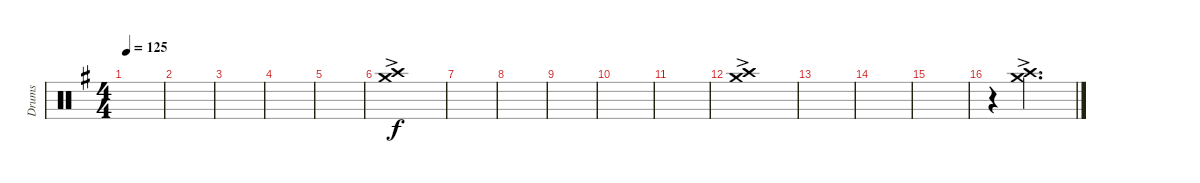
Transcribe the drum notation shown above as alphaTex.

\defaultSystemsLayout 4
\bracketExtendMode groupsimilarinstruments
\otherSystemsTrackNameOrientation horizontal
\track ("Drumkit" "Drums") {instrument percussion}
\staff {score}
\articulation defaults
\ts (4 4)
\tempo 125
\clef neutral
\scale
0.333333
\ks g
|
\scale
0.333333 |
\scale
0.333333 |
\scale
0.333333 |
\scale
0.333333 |
\scale
0.333333 ("Crash high (hit)"{ac acc forcenatural} "Crash medium (hit)"{ac acc forcenatural}).1{beam Down} |
\scale
0.333333 |
\scale
0.333333 |
\scale
0.333333 |
\scale
0.333333 |
\scale
0.333333 |
\scale
0.333333 ("Crash high (hit)"{ac acc forcenatural} "Crash medium (hit)"{ac acc forcenatural}).1{beam Down} |
\scale
0.333333 |
\scale
0.333333 |
\scale
0.333333 |
\scale
0.333333 r.4{beam Down} ("Crash high (hit)"{ac acc forcenatural} "Crash medium (hit)"{ac acc forcenatural}).2{d beam Down}
